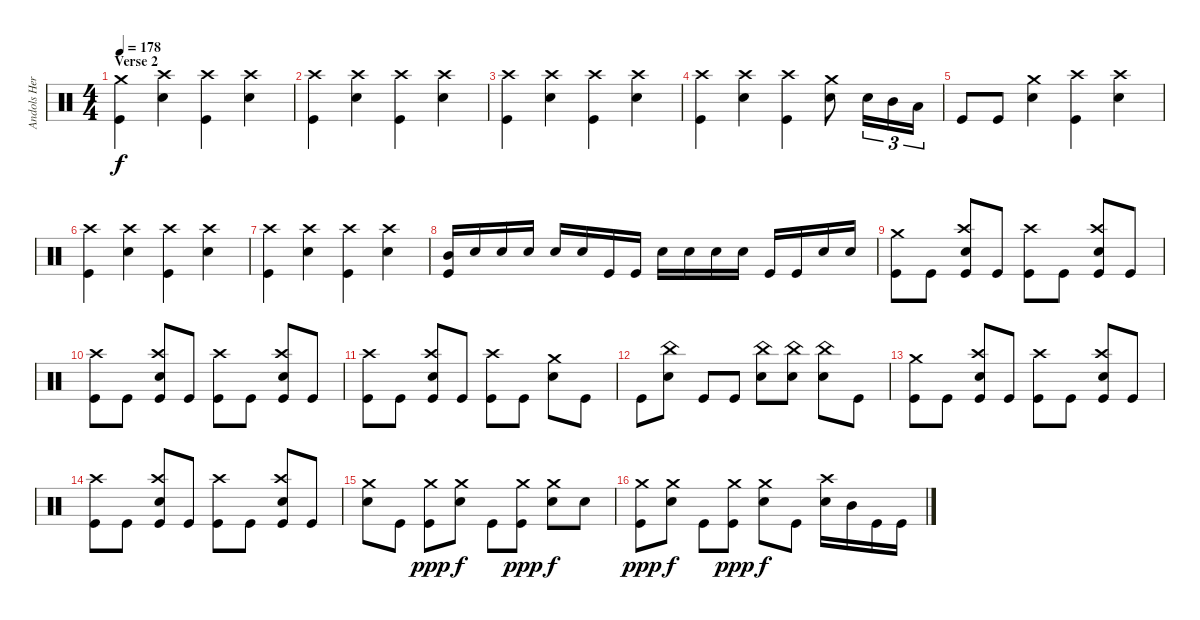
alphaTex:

\track ("Andols Herrick" "Andols Her") {instrument percussion}
\staff {score}
\articulation defaults
\ts (4 4)
\section ("" "Verse 2")
\tempo 178
\clef neutral
\ks c
("Crash medium (hit)" "Kick (hit)").4{dy f} ("Crash high (hit)" "Electric Snare (hit)").4 ("Crash high (hit)" "Kick (hit)").4 ("Crash high (hit)" "Electric Snare (hit)").4 |
("Crash high (hit)" "Kick (hit)").4 ("Crash high (hit)" "Electric Snare (hit)").4 ("Crash high (hit)" "Kick (hit)").4 ("Crash high (hit)" "Electric Snare (hit)").4 |
("Crash high (hit)" "Kick (hit)").4 ("Crash high (hit)" "Electric Snare (hit)").4 ("Crash high (hit)" "Kick (hit)").4 ("Crash high (hit)" "Electric Snare (hit)").4 |
("Crash high (hit)" "Kick (hit)").4 ("Crash high (hit)" "Electric Snare (hit)").4 ("Crash high (hit)" "Kick (hit)").4 ("Crash medium (hit)" "Electric Snare (hit)").8 "Electric Snare (hit)".16{tu (3 2)} "Mid Tom (hit)".16{tu (3 2)} "Low Tom (hit)".16{tu (3 2)} |
"Kick (hit)".8 "Kick (hit)".8 ("Crash medium (hit)" "Electric Snare (hit)").4 ("Crash high (hit)" "Kick (hit)").4 ("Crash high (hit)" "Electric Snare (hit)").4 |
("Crash high (hit)" "Kick (hit)").4 ("Crash high (hit)" "Electric Snare (hit)").4 ("Crash high (hit)" "Kick (hit)").4 ("Crash high (hit)" "Electric Snare (hit)").4 |
("Crash high (hit)" "Kick (hit)").4 ("Crash high (hit)" "Electric Snare (hit)").4 ("Crash high (hit)" "Kick (hit)").4 ("Crash high (hit)" "Electric Snare (hit)").4 |
("Mid Tom (hit)" "Kick (hit)").16 "Electric Snare (hit)".16 "Electric Snare (hit)".16 "Electric Snare (hit)".16 "Electric Snare (hit)".16 "Electric Snare (hit)".16 "Kick (hit)".16 "Kick (hit)".16 "Electric Snare (hit)".16 "Electric Snare (hit)".16 "Electric Snare (hit)".16 "Electric Snare (hit)".16 "Kick (hit)".16 "Kick (hit)".16 "Electric Snare (hit)".16 "Electric Snare (hit)".16 |
("Crash medium (hit)" "Kick (hit)").8 "Kick (hit)".8 ("Crash high (hit)" "Electric Snare (hit)" "Kick (hit)").8 "Kick (hit)".8 ("Crash high (hit)" "Kick (hit)").8 "Kick (hit)".8 ("Crash high (hit)" "Electric Snare (hit)" "Kick (hit)").8 "Kick (hit)".8 |
("Crash high (hit)" "Kick (hit)").8 "Kick (hit)".8 ("Crash high (hit)" "Electric Snare (hit)" "Kick (hit)").8 "Kick (hit)".8 ("Crash high (hit)" "Kick (hit)").8 "Kick (hit)".8 ("Crash high (hit)" "Electric Snare (hit)" "Kick (hit)").8 "Kick (hit)".8 |
("Crash high (hit)" "Kick (hit)").8 "Kick (hit)".8 ("Crash high (hit)" "Electric Snare (hit)" "Kick (hit)").8 "Kick (hit)".8 ("Crash high (hit)" "Kick (hit)").8 "Kick (hit)".8 ("Crash medium (hit)" "Electric Snare (hit)").8 "Kick (hit)".8 |
"Kick (hit)".8 ("China (hit)" "Electric Snare (hit)").8 "Kick (hit)".8 "Kick (hit)".8 ("China (hit)" "Electric Snare (hit)").8 ("China (hit)" "Electric Snare (hit)").8 ("China (hit)" "Electric Snare (hit)").8 "Kick (hit)".8 |
("Crash medium (hit)" "Kick (hit)").8 "Kick (hit)".8 ("Crash high (hit)" "Electric Snare (hit)" "Kick (hit)").8 "Kick (hit)".8 ("Crash high (hit)" "Kick (hit)").8 "Kick (hit)".8 ("Crash high (hit)" "Electric Snare (hit)" "Kick (hit)").8 "Kick (hit)".8 |
("Crash high (hit)" "Kick (hit)").8 "Kick (hit)".8 ("Crash high (hit)" "Electric Snare (hit)" "Kick (hit)").8 "Kick (hit)".8 ("Crash high (hit)" "Kick (hit)").8 "Kick (hit)".8 ("Crash high (hit)" "Electric Snare (hit)" "Kick (hit)").8 "Kick (hit)".8 |
("Crash medium (hit)" "Electric Snare (hit)").8 "Kick (hit)".8 ("Crash medium (hit)" "Kick (hit)").8{dy ppp} ("Crash medium (hit)" "Electric Snare (hit)").8{dy f} "Kick (hit)".8 ("Crash medium (hit)" "Kick (hit)").8{dy ppp} ("Crash medium (hit)" "Electric Snare (hit)").8{dy f} "Electric Snare (hit)".8 |
("Crash medium (hit)" "Kick (hit)").8{dy ppp} ("Crash medium (hit)" "Electric Snare (hit)").8{dy f} "Kick (hit)".8 ("Crash medium (hit)" "Kick (hit)").8{dy ppp} ("Crash medium (hit)" "Electric Snare (hit)").8{dy f} "Kick (hit)".8 ("Crash high (hit)" "Electric Snare (hit)").16 "Mid Tom (hit)".16 "Kick (hit)".16 "Kick (hit)".16
